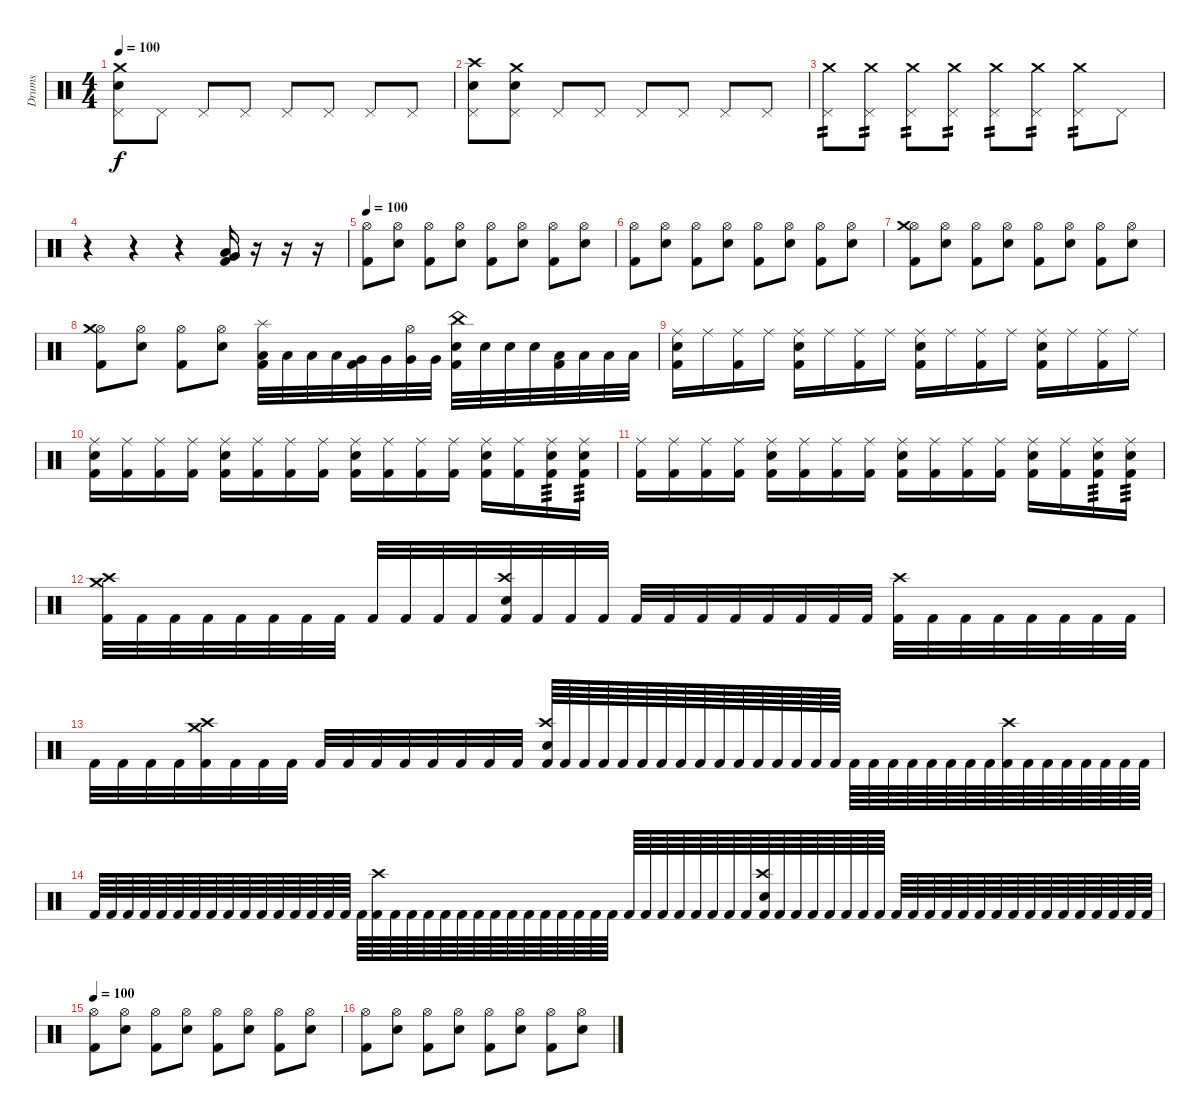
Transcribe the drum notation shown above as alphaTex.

\track ("Drums" "Drums") {instrument percussion}
\staff {score}
\articulation defaults
\ts (4 4)
\tempo 100
\clef neutral
\ks c
("Crash medium (hit)" "Electric Snare (hit)" "Pedal Hi-Hat (hit)").8{dy f} "Pedal Hi-Hat (hit)".8 "Pedal Hi-Hat (hit)".8 "Pedal Hi-Hat (hit)".8 "Pedal Hi-Hat (hit)".8 "Pedal Hi-Hat (hit)".8 "Pedal Hi-Hat (hit)".8 "Pedal Hi-Hat (hit)".8 |
("Crash high (hit)" "Electric Snare (hit)" "Pedal Hi-Hat (hit)").8 ("Crash medium (hit)" "Electric Snare (hit)" "Pedal Hi-Hat (hit)").8 "Pedal Hi-Hat (hit)".8 "Pedal Hi-Hat (hit)".8 "Pedal Hi-Hat (hit)".8 "Pedal Hi-Hat (hit)".8 "Pedal Hi-Hat (hit)".8 "Pedal Hi-Hat (hit)".8 |
("Crash medium (hit)" "Pedal Hi-Hat (hit)").8{tp 2} ("Crash medium (hit)" "Pedal Hi-Hat (hit)").8{tp 2} ("Crash medium (hit)" "Pedal Hi-Hat (hit)").8{tp 2} ("Crash medium (hit)" "Pedal Hi-Hat (hit)").8{tp 2} ("Crash medium (hit)" "Pedal Hi-Hat (hit)").8{tp 2} ("Crash medium (hit)" "Pedal Hi-Hat (hit)").8{tp 2} ("Crash medium (hit)" "Pedal Hi-Hat (hit)").8{tp 2} "Pedal Hi-Hat (hit)".8 |
r.4 r.4 r.4 ("Low Floor Tom (hit)" "Very Low Tom (hit)" "Kick (hit) 2").16 r.16 r.16 r.16 |
\tempo 100
("Hi-Hat (open)" "Kick (hit) 2").8 ("Hi-Hat (open)" "Electric Snare (hit)").8 ("Hi-Hat (open)" "Kick (hit) 2").8 ("Hi-Hat (open)" "Electric Snare (hit)").8 ("Hi-Hat (open)" "Kick (hit) 2").8 ("Hi-Hat (open)" "Electric Snare (hit)").8 ("Hi-Hat (open)" "Kick (hit) 2").8 ("Hi-Hat (open)" "Electric Snare (hit)").8 |
("Hi-Hat (open)" "Kick (hit) 2").8 ("Hi-Hat (open)" "Electric Snare (hit)").8 ("Hi-Hat (open)" "Kick (hit) 2").8 ("Hi-Hat (open)" "Electric Snare (hit)").8 ("Hi-Hat (open)" "Kick (hit) 2").8 ("Hi-Hat (open)" "Electric Snare (hit)").8 ("Hi-Hat (open)" "Kick (hit) 2").8 ("Hi-Hat (open)" "Electric Snare (hit)").8 |
("Hi-Hat (open)" "Crash medium (hit)" "Kick (hit) 2").8 ("Hi-Hat (open)" "Electric Snare (hit)").8 ("Hi-Hat (open)" "Kick (hit) 2").8 ("Hi-Hat (open)" "Electric Snare (hit)").8 ("Hi-Hat (open)" "Kick (hit) 2").8 ("Hi-Hat (open)" "Electric Snare (hit)").8 ("Hi-Hat (open)" "Kick (hit) 2").8 ("Hi-Hat (open)" "Electric Snare (hit)").8 |
("Hi-Hat (open)" "Crash medium (hit)" "Kick (hit) 2").8 ("Hi-Hat (open)" "Electric Snare (hit)").8 ("Hi-Hat (open)" "Kick (hit) 2").8 ("Hi-Hat (open)" "Electric Snare (hit)").8 ("Splash (hit)" "Low Tom (hit)" "Kick (hit) 2").32 "Low Tom (hit)".32 "Low Tom (hit)".32 "Low Tom (hit)".32 ("Very Low Tom (hit)" "Kick (hit) 2").32 "Very Low Tom (hit)".32 ("Hi-Hat (open)" "Very Low Tom (hit)").32 "Very Low Tom (hit)".32 ("China (hit)" "Electric Snare (hit)" "Kick (hit) 2").32 "Electric Snare (hit)".32 "Electric Snare (hit)".32 "Electric Snare (hit)".32 ("Low Tom (hit)" "Kick (hit) 2").32 "Low Tom (hit)".32 "Low Tom (hit)".32 "Low Tom (hit)".32 |
("Ride (middle)" "Electric Snare (hit)" "Kick (hit) 2").16 "Ride (middle)".16 ("Ride (middle)" "Kick (hit) 2").16 "Ride (middle)".16 ("Ride (middle)" "Electric Snare (hit)" "Kick (hit) 2").16 "Ride (middle)".16 ("Ride (middle)" "Kick (hit) 2").16 "Ride (middle)".16 ("Ride (middle)" "Electric Snare (hit)" "Kick (hit) 2").16 "Ride (middle)".16 ("Ride (middle)" "Kick (hit) 2").16 "Ride (middle)".16 ("Ride (middle)" "Electric Snare (hit)" "Kick (hit) 2").16 "Ride (middle)".16 ("Ride (middle)" "Kick (hit) 2").16 "Ride (middle)".16 |
("Ride (middle)" "Electric Snare (hit)" "Kick (hit) 2").16 ("Ride (middle)" "Kick (hit) 2").16 ("Ride (middle)" "Kick (hit) 2").16 ("Ride (middle)" "Kick (hit) 2").16 ("Ride (middle)" "Electric Snare (hit)" "Kick (hit) 2").16 ("Ride (middle)" "Kick (hit) 2").16 ("Ride (middle)" "Kick (hit) 2").16 ("Ride (middle)" "Kick (hit) 2").16 ("Ride (middle)" "Electric Snare (hit)" "Kick (hit) 2").16 ("Ride (middle)" "Kick (hit) 2").16 ("Ride (middle)" "Kick (hit) 2").16 ("Ride (middle)" "Kick (hit) 2").16 ("Ride (middle)" "Electric Snare (hit)" "Kick (hit) 2").16 ("Ride (middle)" "Kick (hit) 2").16 ("Ride (middle)" "Electric Snare (hit)" "Kick (hit) 2").16{tp 3} ("Ride (middle)" "Electric Snare (hit)" "Kick (hit) 2").16{tp 3} |
("Ride (middle)" "Kick (hit) 2").16 ("Ride (middle)" "Kick (hit) 2").16 ("Ride (middle)" "Kick (hit) 2").16 ("Ride (middle)" "Kick (hit) 2").16 ("Ride (middle)" "Electric Snare (hit)" "Kick (hit) 2").16 ("Ride (middle)" "Kick (hit) 2").16 ("Ride (middle)" "Kick (hit) 2").16 ("Ride (middle)" "Kick (hit) 2").16 ("Ride (middle)" "Electric Snare (hit)" "Kick (hit) 2").16 ("Ride (middle)" "Kick (hit) 2").16 ("Ride (middle)" "Kick (hit) 2").16 ("Ride (middle)" "Kick (hit) 2").16 ("Ride (middle)" "Electric Snare (hit)" "Kick (hit) 2").16 ("Ride (middle)" "Kick (hit) 2").16 ("Ride (middle)" "Electric Snare (hit)" "Kick (hit) 2").16{tp 3} ("Ride (middle)" "Electric Snare (hit)" "Kick (hit) 2").16{tp 3} |
("Crash high (hit)" "Crash medium (hit)" "Kick (hit) 2").32 "Kick (hit) 2".32 "Kick (hit) 2".32 "Kick (hit) 2".32 "Kick (hit) 2".32 "Kick (hit) 2".32 "Kick (hit) 2".32 "Kick (hit) 2".32 "Kick (hit) 2".32 "Kick (hit) 2".32 "Kick (hit) 2".32 "Kick (hit) 2".32 ("Crash high (hit)" "Electric Snare (hit)" "Kick (hit) 2").32 "Kick (hit) 2".32 "Kick (hit) 2".32 "Kick (hit) 2".32 "Kick (hit) 2".32 "Kick (hit) 2".32 "Kick (hit) 2".32 "Kick (hit) 2".32 "Kick (hit) 2".32 "Kick (hit) 2".32 "Kick (hit) 2".32 "Kick (hit) 2".32 ("Crash high (hit)" "Kick (hit) 2").32 "Kick (hit) 2".32 "Kick (hit) 2".32 "Kick (hit) 2".32 "Kick (hit) 2".32 "Kick (hit) 2".32 "Kick (hit) 2".32 "Kick (hit) 2".32 |
"Kick (hit) 2".32 "Kick (hit) 2".32 "Kick (hit) 2".32 "Kick (hit) 2".32 ("Crash medium (hit)" "Crash high (hit)" "Kick (hit) 2").32 "Kick (hit) 2".32 "Kick (hit) 2".32 "Kick (hit) 2".32 "Kick (hit) 2".32 "Kick (hit) 2".32 "Kick (hit) 2".32 "Kick (hit) 2".32 "Kick (hit) 2".32 "Kick (hit) 2".32 "Kick (hit) 2".32 "Kick (hit) 2".32 ("Crash high (hit)" "Electric Snare (hit)" "Kick (hit) 2").64 "Kick (hit) 2".64 "Kick (hit) 2".64 "Kick (hit) 2".64 "Kick (hit) 2".64 "Kick (hit) 2".64 "Kick (hit) 2".64 "Kick (hit) 2".64 "Kick (hit) 2".64 "Kick (hit) 2".64 "Kick (hit) 2".64 "Kick (hit) 2".64 "Kick (hit) 2".64 "Kick (hit) 2".64 "Kick (hit) 2".64 "Kick (hit) 2".64 "Kick (hit) 2".64 "Kick (hit) 2".64 "Kick (hit) 2".64 "Kick (hit) 2".64 "Kick (hit) 2".64 "Kick (hit) 2".64 "Kick (hit) 2".64 "Kick (hit) 2".64 ("Crash high (hit)" "Kick (hit) 2").64 "Kick (hit) 2".64 "Kick (hit) 2".64 "Kick (hit) 2".64 "Kick (hit) 2".64 "Kick (hit) 2".64 "Kick (hit) 2".64 "Kick (hit) 2".64 |
"Kick (hit) 2".64 "Kick (hit) 2".64 "Kick (hit) 2".64 "Kick (hit) 2".64 "Kick (hit) 2".64 "Kick (hit) 2".64 "Kick (hit) 2".64 "Kick (hit) 2".64 "Kick (hit) 2".64 "Kick (hit) 2".64 "Kick (hit) 2".64 "Kick (hit) 2".64 "Kick (hit) 2".64 "Kick (hit) 2".64 "Kick (hit) 2".64 "Kick (hit) 2".64 "Kick (hit) 2".64 ("Crash high (hit)" "Kick (hit) 2").64 "Kick (hit) 2".64 "Kick (hit) 2".64 "Kick (hit) 2".64 "Kick (hit) 2".64 "Kick (hit) 2".64 "Kick (hit) 2".64 "Kick (hit) 2".64 "Kick (hit) 2".64 "Kick (hit) 2".64 "Kick (hit) 2".64 "Kick (hit) 2".64 "Kick (hit) 2".64 "Kick (hit) 2".64 "Kick (hit) 2".64 "Kick (hit) 2".64 "Kick (hit) 2".64 "Kick (hit) 2".64 "Kick (hit) 2".64 "Kick (hit) 2".64 "Kick (hit) 2".64 "Kick (hit) 2".64 "Kick (hit) 2".64 ("Crash high (hit)" "Electric Snare (hit)" "Kick (hit) 2").64 "Kick (hit) 2".64 "Kick (hit) 2".64 "Kick (hit) 2".64 "Kick (hit) 2".64 "Kick (hit) 2".64 "Kick (hit) 2".64 "Kick (hit) 2".64 "Kick (hit) 2".64 "Kick (hit) 2".64 "Kick (hit) 2".64 "Kick (hit) 2".64 "Kick (hit) 2".64 "Kick (hit) 2".64 "Kick (hit) 2".64 "Kick (hit) 2".64 "Kick (hit) 2".64 "Kick (hit) 2".64 "Kick (hit) 2".64 "Kick (hit) 2".64 "Kick (hit) 2".64 "Kick (hit) 2".64 "Kick (hit) 2".64 "Kick (hit) 2".64 |
\tempo 100
("Hi-Hat (open)" "Kick (hit) 2").8 ("Hi-Hat (open)" "Electric Snare (hit)").8 ("Hi-Hat (open)" "Kick (hit) 2").8 ("Hi-Hat (open)" "Electric Snare (hit)").8 ("Hi-Hat (open)" "Kick (hit) 2").8 ("Hi-Hat (open)" "Electric Snare (hit)").8 ("Hi-Hat (open)" "Kick (hit) 2").8 ("Hi-Hat (open)" "Electric Snare (hit)").8 |
("Hi-Hat (open)" "Kick (hit) 2").8 ("Hi-Hat (open)" "Electric Snare (hit)").8 ("Hi-Hat (open)" "Kick (hit) 2").8 ("Hi-Hat (open)" "Electric Snare (hit)").8 ("Hi-Hat (open)" "Kick (hit) 2").8 ("Hi-Hat (open)" "Electric Snare (hit)").8 ("Hi-Hat (open)" "Kick (hit) 2").8 ("Hi-Hat (open)" "Electric Snare (hit)").8
